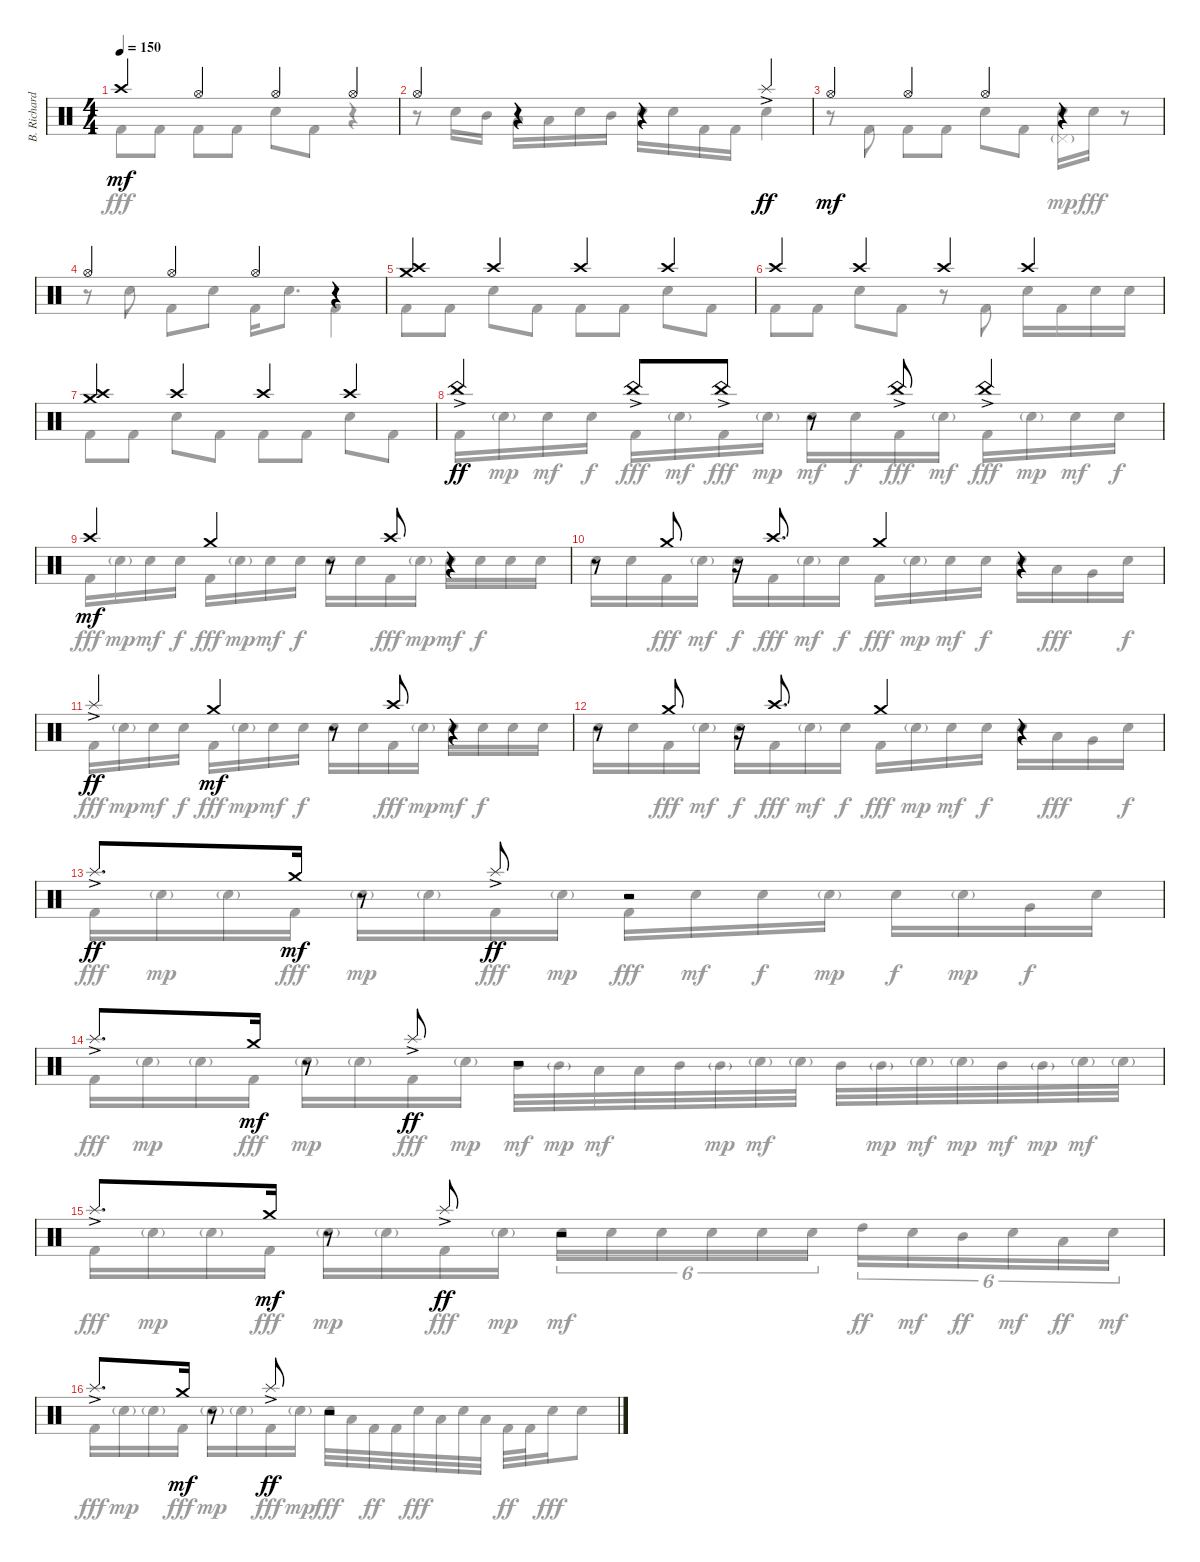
\track ("B. Richardson Drums" "B. Richard") {instrument percussion}
\staff {score}
\articulation defaults
\voice
\ts (4 4)
\tempo 150
\clef neutral
\ks c "Crash high (hit)".4{dy mf} "Hi-Hat (open)".4 "Hi-Hat (open)".4 "Hi-Hat (open)".4
|
"Hi-Hat (open)".4 r.4 r.4 "Splash (hit)"{ac}.4{dy ff} |
"Hi-Hat (open)".4{dy mf} "Hi-Hat (open)".4 "Hi-Hat (open)".4 r.4 |
"Hi-Hat (open)".4 "Hi-Hat (open)".4 "Hi-Hat (open)".4 r.4 |
("Crash high (hit)" "Crash medium (hit)").4 "Crash high (hit)".4 "Crash high (hit)".4 "Crash high (hit)".4 |
"Crash high (hit)".4 "Crash high (hit)".4 "Crash high (hit)".4 "Crash high (hit)".4 |
("Crash high (hit)" "Crash medium (hit)").4 "Crash high (hit)".4 "Crash high (hit)".4 "Crash high (hit)".4 |
"China (hit)"{ac}.4{dy ff} "China (hit)"{ac}.8 "China (hit)"{ac}.8 r.8 "China (hit)"{ac}.8 "China (hit)"{ac}.4 |
"Crash high (hit)".4{dy mf} "Crash medium (hit)".4 r.8 "Crash high (hit)".8 r.4 |
r.8 "Crash medium (hit)".8 r.16 "Crash high (hit)".8{d} "Crash medium (hit)".4 r.4 |
"Splash (hit)"{ac}.4{dy ff} "Crash medium (hit)".4{dy mf} r.8 "Crash high (hit)".8 r.4 |
r.8 "Crash medium (hit)".8 r.16 "Crash high (hit)".8{d} "Crash medium (hit)".4 r.4 |
"Splash (hit)"{ac}.8{d dy ff} "Crash medium (hit)".16{dy mf} r.8 "Splash (hit)"{ac}.8{dy ff} r.2 |
"Splash (hit)"{ac}.8{d} "Crash medium (hit)".16{dy mf} r.8 "Splash (hit)"{ac}.8{dy ff} r.2 |
"Splash (hit)"{ac}.8{d} "Crash medium (hit)".16{dy mf} r.8 "Splash (hit)"{ac}.8{dy ff} r.2 |
"Splash (hit)"{ac}.8{d} "Crash medium (hit)".16{dy mf} r.8 "Splash (hit)"{ac}.8{dy ff} r.2
\voice
\clef neutral
\ottava regular
\simile none
\ks c "Kick (hit) 2".8{dy fff} "Kick (hit) 2".8 "Kick (hit) 2".8 "Kick (hit) 2".8 "Electric Snare (hit)".8 "Kick (hit) 2".8
r.4 |
r.8 "Electric Snare (hit)".16 "Mid Tom (hit)".16 "Low Tom (hit)".16 "Low Tom (hit)".16 "Electric Snare (hit)".16 "Mid Tom (hit)".16 "Electric Snare (hit)".16 "Electric Snare (hit)".16 "Kick (hit) 2".16 "Kick (hit) 2".16 "Electric Snare (hit)".4 |
r.8 "Kick (hit) 2".8 "Kick (hit) 2".8 "Kick (hit) 2".8 "Electric Snare (hit)".8 "Kick (hit) 2".8 ("Electric Snare (hit)" "Pedal Hi-Hat (hit)"{g}).16{dy mp} "Electric Snare (hit)".16{dy fff} r.8 |
r.8 "Electric Snare (hit)".8 "Kick (hit) 2".8 "Electric Snare (hit)".8 "Kick (hit) 2".16 "Electric Snare (hit)".8{d} "Kick (hit) 2".4 |
"Kick (hit) 2".8 "Kick (hit) 2".8 "Electric Snare (hit)".8 "Kick (hit) 2".8 "Kick (hit) 2".8 "Kick (hit) 2".8 "Electric Snare (hit)".8 "Kick (hit) 2".8 |
"Kick (hit) 2".8 "Kick (hit) 2".8 "Electric Snare (hit)".8 "Kick (hit) 2".8 r.8 "Kick (hit) 2".8 "Electric Snare (hit)".16 "Kick (hit) 2".16 "Electric Snare (hit)".16 "Electric Snare (hit)".16 |
"Kick (hit) 2".8 "Kick (hit) 2".8 "Electric Snare (hit)".8 "Kick (hit) 2".8 "Kick (hit) 2".8 "Kick (hit) 2".8 "Electric Snare (hit)".8 "Kick (hit) 2".8 |
"Kick (hit) 2".16 "Electric Snare (hit)"{g}.16{dy mp} "Electric Snare (hit)".16{dy mf} "Electric Snare (hit)".16{dy f} "Kick (hit) 2".16{dy fff} "Electric Snare (hit)"{g}.16{dy mf} "Kick (hit) 2".16{dy fff} "Electric Snare (hit)"{g}.16{dy mp} "Electric Snare (hit)".16{dy mf} "Electric Snare (hit)".16{dy f} "Kick (hit) 2".16{dy fff} "Electric Snare (hit)"{g}.16{dy mf} "Kick (hit) 2".16{dy fff} "Electric Snare (hit)"{g}.16{dy mp} "Electric Snare (hit)".16{dy mf} "Electric Snare (hit)".16{dy f} |
"Kick (hit) 2".16{dy fff} "Electric Snare (hit)"{g}.16{dy mp} "Electric Snare (hit)".16{dy mf} "Electric Snare (hit)".16{dy f} "Kick (hit) 2".16{dy fff} "Electric Snare (hit)"{g}.16{dy mp} "Electric Snare (hit)".16{dy mf} "Electric Snare (hit)".16{dy f} "Electric Snare (hit)".16 "Electric Snare (hit)".16 "Kick (hit) 2".16{dy fff} "Electric Snare (hit)"{g}.16{dy mp} "Electric Snare (hit)".16{dy mf} "Electric Snare (hit)".16{dy f} "Electric Snare (hit)".16 "Electric Snare (hit)".16 |
"Electric Snare (hit)".16 "Electric Snare (hit)".16 "Kick (hit) 2".16{dy fff} "Electric Snare (hit)"{g}.16{dy mf} "Electric Snare (hit)".16{dy f} "Kick (hit) 2".16{dy fff} "Electric Snare (hit)"{g}.16{dy mf} "Electric Snare (hit)".16{dy f} "Kick (hit) 2".16{dy fff} "Electric Snare (hit)"{g}.16{dy mp} "Electric Snare (hit)".16{dy mf} "Electric Snare (hit)".16{dy f} "Electric Snare (hit)".16 "Low Tom (hit)".16{dy fff} "Very Low Tom (hit)".16 "Electric Snare (hit)".16{dy f} |
"Kick (hit) 2".16{dy fff} "Electric Snare (hit)"{g}.16{dy mp} "Electric Snare (hit)".16{dy mf} "Electric Snare (hit)".16{dy f} "Kick (hit) 2".16{dy fff} "Electric Snare (hit)"{g}.16{dy mp} "Electric Snare (hit)".16{dy mf} "Electric Snare (hit)".16{dy f} "Electric Snare (hit)".16 "Electric Snare (hit)".16 "Kick (hit) 2".16{dy fff} "Electric Snare (hit)"{g}.16{dy mp} "Electric Snare (hit)".16{dy mf} "Electric Snare (hit)".16{dy f} "Electric Snare (hit)".16 "Electric Snare (hit)".16 |
"Electric Snare (hit)".16 "Electric Snare (hit)".16 "Kick (hit) 2".16{dy fff} "Electric Snare (hit)"{g}.16{dy mf} "Electric Snare (hit)".16{dy f} "Kick (hit) 2".16{dy fff} "Electric Snare (hit)"{g}.16{dy mf} "Electric Snare (hit)".16{dy f} "Kick (hit) 2".16{dy fff} "Electric Snare (hit)"{g}.16{dy mp} "Electric Snare (hit)".16{dy mf} "Electric Snare (hit)".16{dy f} "Electric Snare (hit)".16 "Low Tom (hit)".16{dy fff} "Very Low Tom (hit)".16 "Electric Snare (hit)".16{dy f} |
"Kick (hit) 2".16{dy fff} "Electric Snare (hit)"{g}.16{dy mp} "Electric Snare (hit)"{g}.16 "Kick (hit) 2".16{dy fff} "Electric Snare (hit)"{g}.16{dy mp} "Electric Snare (hit)"{g}.16 "Kick (hit) 2".16{dy fff} "Electric Snare (hit)"{g}.16{dy mp} "Kick (hit) 2".16{dy fff} "Electric Snare (hit)".16{dy mf} "Electric Snare (hit)".16{dy f} "Electric Snare (hit)"{g}.16{dy mp} "Electric Snare (hit)".16{dy f} "Electric Snare (hit)"{g}.16{dy mp} "Very Low Tom (hit)".16{dy f} "Electric Snare (hit)".16 |
"Kick (hit) 2".16{dy fff} "Electric Snare (hit)"{g}.16{dy mp} "Electric Snare (hit)"{g}.16 "Kick (hit) 2".16{dy fff} "Electric Snare (hit)"{g}.16{dy mp} "Electric Snare (hit)"{g}.16 "Kick (hit) 2".16{dy fff} "Electric Snare (hit)"{g}.16{dy mp} "Mid Tom (hit)".32{dy mf} "Mid Tom (hit)"{g}.32{dy mp} "Low Tom (hit)".32{dy mf} "Low Tom (hit)".32 "Mid Tom (hit)".32 "Mid Tom (hit)"{g}.32{dy mp} "Electric Snare (hit)"{g}.32{dy mf} "Electric Snare (hit)"{g}.32 "Mid Tom (hit)".32 "Mid Tom (hit)"{g}.32{dy mp} "Electric Snare (hit)"{g}.32{dy mf} "Electric Snare (hit)"{g}.32{dy mp} "Mid Tom (hit)".32{dy mf} "Mid Tom (hit)"{g}.32{dy mp} "Electric Snare (hit)"{g}.32{dy mf} "Electric Snare (hit)"{g}.32 |
"Kick (hit) 2".16{dy fff} "Electric Snare (hit)"{g}.16{dy mp} "Electric Snare (hit)"{g}.16 "Kick (hit) 2".16{dy fff} "Electric Snare (hit)"{g}.16{dy mp} "Electric Snare (hit)"{g}.16 "Kick (hit) 2".16{dy fff} "Electric Snare (hit)"{g}.16{dy mp} "Electric Snare (hit)".16{tu (6 4) dy mf} "Electric Snare (hit)".16{tu (6 4)} "Electric Snare (hit)".16{tu (6 4)} "Electric Snare (hit)".16{tu (6 4)} "Electric Snare (hit)".16{tu (6 4)} "Electric Snare (hit)".16{tu (6 4)} "High Tom (hit)".16{tu (6 4) dy ff} "Electric Snare (hit)".16{tu (6 4) dy mf} "Mid Tom (hit)".16{tu (6 4) dy ff} "Electric Snare (hit)".16{tu (6 4) dy mf} "Low Tom (hit)".16{tu (6 4) dy ff} "Electric Snare (hit)".16{tu (6 4) dy mf} |
"Kick (hit) 2".16{dy fff} "Electric Snare (hit)"{g}.16{dy mp} "Electric Snare (hit)"{g}.16 "Kick (hit) 2".16{dy fff} "Electric Snare (hit)"{g}.16{dy mp} "Electric Snare (hit)"{g}.16 "Kick (hit) 2".16{dy fff} "Electric Snare (hit)"{g}.16{dy mp} "Electric Snare (hit)".32{dy fff} "Low Tom (hit)".32 "Kick (hit) 2".32{dy ff} "Kick (hit) 2".32 "Electric Snare (hit)".32{dy fff} "Low Tom (hit)".32 "Electric Snare (hit)".32 "Low Tom (hit)".32 "Kick (hit) 2".32{dy ff} "Kick (hit) 2".32 "Electric Snare (hit)".16{dy fff} "Electric Snare (hit)".8
